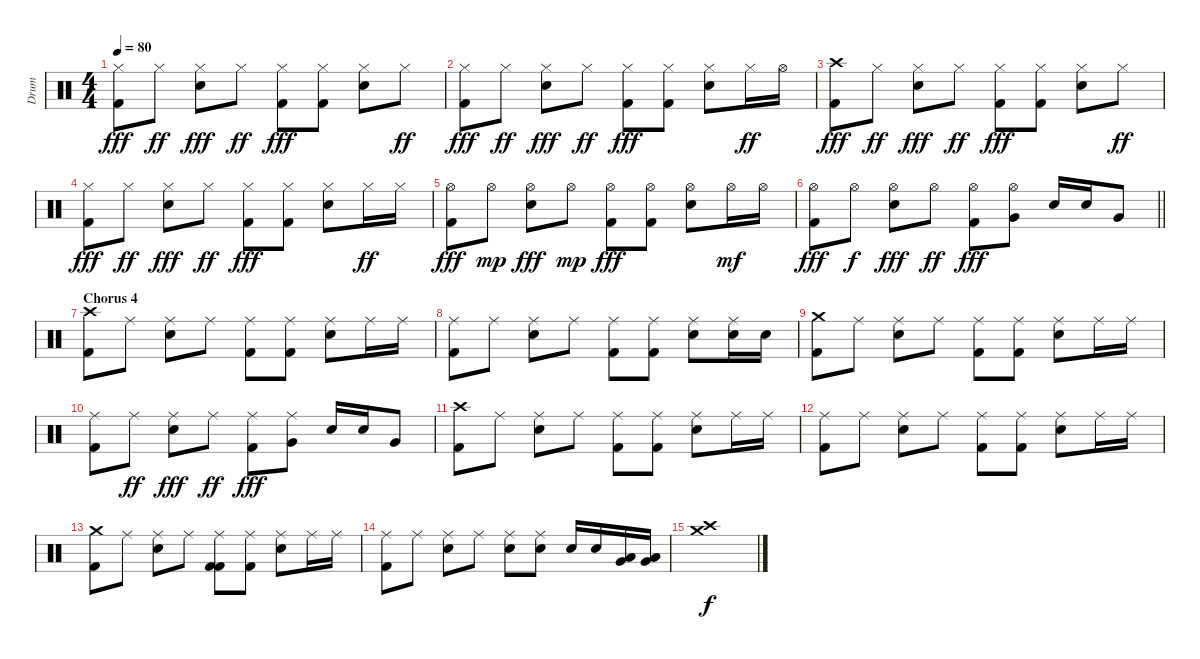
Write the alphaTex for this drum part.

\track ("Drum" "Drum") {instrument percussion}
\staff {score}
\articulation defaults
\ts (4 4)
\tempo 80
\clef neutral
\ks c
("Hi-Hat (closed)" "Kick (hit) 2").8{dy fff} "Hi-Hat (closed)".8{dy ff} ("Hi-Hat (closed)" "Electric Snare (hit)").8{dy fff} "Hi-Hat (closed)".8{dy ff} ("Hi-Hat (closed)" "Kick (hit) 2").8{dy fff} ("Hi-Hat (closed)" "Kick (hit) 2").8 ("Hi-Hat (closed)" "Electric Snare (hit)").8 "Hi-Hat (closed)".8{dy ff} |
("Hi-Hat (closed)" "Kick (hit) 2").8{dy fff} "Hi-Hat (closed)".8{dy ff} ("Hi-Hat (closed)" "Electric Snare (hit)").8{dy fff} "Hi-Hat (closed)".8{dy ff} ("Hi-Hat (closed)" "Kick (hit) 2").8{dy fff} ("Hi-Hat (closed)" "Kick (hit) 2").8 ("Hi-Hat (closed)" "Electric Snare (hit)").8 "Hi-Hat (closed)".16{dy ff} "Hi-Hat (open)".16 |
("Crash high (hit)" "Kick (hit) 2").8{dy fff} "Hi-Hat (closed)".8{dy ff} ("Hi-Hat (closed)" "Electric Snare (hit)").8{dy fff} "Hi-Hat (closed)".8{dy ff} ("Hi-Hat (closed)" "Kick (hit) 2").8{dy fff} ("Hi-Hat (closed)" "Kick (hit) 2").8 ("Hi-Hat (closed)" "Electric Snare (hit)").8 "Hi-Hat (closed)".8{dy ff} |
("Hi-Hat (closed)" "Kick (hit) 2").8{dy fff} "Hi-Hat (closed)".8{dy ff} ("Hi-Hat (closed)" "Electric Snare (hit)").8{dy fff} "Hi-Hat (closed)".8{dy ff} ("Hi-Hat (closed)" "Kick (hit) 2").8{dy fff} ("Hi-Hat (closed)" "Kick (hit) 2").8 ("Hi-Hat (closed)" "Electric Snare (hit)").8 "Hi-Hat (closed)".16{dy ff} "Hi-Hat (closed)".16 |
("Hi-Hat (open)" "Kick (hit) 2").8{dy fff} "Hi-Hat (open)".8{dy mp} ("Hi-Hat (open)" "Electric Snare (hit)").8{dy fff} "Hi-Hat (open)".8{dy mp} ("Hi-Hat (open)" "Kick (hit) 2").8{dy fff} ("Hi-Hat (open)" "Kick (hit) 2").8 ("Hi-Hat (open)" "Electric Snare (hit)").8 "Hi-Hat (open)".16{dy mf} "Hi-Hat (open)".16 |
\barLineRight lightlight
("Hi-Hat (open)" "Kick (hit) 2").8{dy fff} "Hi-Hat (open)".8{dy f} ("Hi-Hat (open)" "Electric Snare (hit)").8{dy fff} "Hi-Hat (open)".8{dy ff} ("Hi-Hat (open)" "Kick (hit) 2").8{dy fff} ("Hi-Hat (open)" "Very Low Tom (hit)").8 "Electric Snare (hit)".16 "Electric Snare (hit)".16 "Very Low Tom (hit)".8 |
\section ("" "Chorus 4")
("Crash high (hit)" "Kick (hit) 2").8 "Ride (middle)".8 ("Ride (middle)" "Electric Snare (hit)").8 "Ride (middle)".8 ("Ride (middle)" "Kick (hit) 2").8 ("Ride (middle)" "Kick (hit) 2").8 ("Ride (middle)" "Electric Snare (hit)").8 "Ride (middle)".16 "Ride (middle)".16 |
("Ride (middle)" "Kick (hit) 2").8 "Ride (middle)".8 ("Ride (middle)" "Electric Snare (hit)").8 "Ride (middle)".8 ("Ride (middle)" "Kick (hit) 2").8 ("Ride (middle)" "Kick (hit) 2").8 ("Ride (middle)" "Electric Snare (hit)").8 ("Ride (middle)" "Electric Snare (hit)").16 "Electric Snare (hit)".16 |
("Crash medium (hit)" "Kick (hit) 2").8 "Ride (middle)".8 ("Ride (middle)" "Electric Snare (hit)").8 "Ride (middle)".8 ("Ride (middle)" "Kick (hit) 2").8 ("Ride (middle)" "Kick (hit) 2").8 ("Ride (middle)" "Electric Snare (hit)").8 "Ride (middle)".16 "Ride (middle)".16 |
("Ride (middle)" "Kick (hit) 2").8 "Ride (middle)".8{dy ff} ("Ride (middle)" "Electric Snare (hit)").8{dy fff} "Ride (middle)".8{dy ff} ("Ride (middle)" "Kick (hit) 2").8{dy fff} ("Ride (middle)" "Very Low Tom (hit)").8 "Electric Snare (hit)".16 "Electric Snare (hit)".16 "Very Low Tom (hit)".8 |
("Crash high (hit)" "Kick (hit) 2").8 "Ride (middle)".8 ("Ride (middle)" "Electric Snare (hit)").8 "Ride (middle)".8 ("Ride (middle)" "Kick (hit) 2").8 ("Ride (middle)" "Kick (hit) 2").8 ("Ride (middle)" "Electric Snare (hit)").8 "Ride (middle)".16 "Ride (middle)".16 |
("Ride (middle)" "Kick (hit) 2").8 "Ride (middle)".8 ("Ride (middle)" "Electric Snare (hit)").8 "Ride (middle)".8 ("Ride (middle)" "Kick (hit) 2").8 ("Ride (middle)" "Kick (hit) 2").8 ("Ride (middle)" "Electric Snare (hit)").8 "Ride (middle)".16 "Ride (middle)".16 |
("Crash medium (hit)" "Kick (hit) 2").8 "Ride (middle)".8 ("Ride (middle)" "Electric Snare (hit)").8 "Ride (middle)".8 ("Ride (middle)" "Kick (hit) 2" "Kick (hit) 2").8 ("Ride (middle)" "Kick (hit) 2").8 ("Ride (middle)" "Electric Snare (hit)").8 "Ride (middle)".16 "Ride (middle)".16 |
("Ride (middle)" "Kick (hit) 2").8 "Ride (middle)".8 ("Ride (middle)" "Electric Snare (hit)").8 "Ride (middle)".8 ("Ride (middle)" "Electric Snare (hit)").8 ("Ride (middle)" "Electric Snare (hit)").8 "Electric Snare (hit)".16 "Electric Snare (hit)".16 ("Low Floor Tom (hit)" "Very Low Tom (hit)").16 ("Low Floor Tom (hit)" "Very Low Tom (hit)").16 |
("Crash medium (hit)" "Crash high (hit)").1{dy f}
